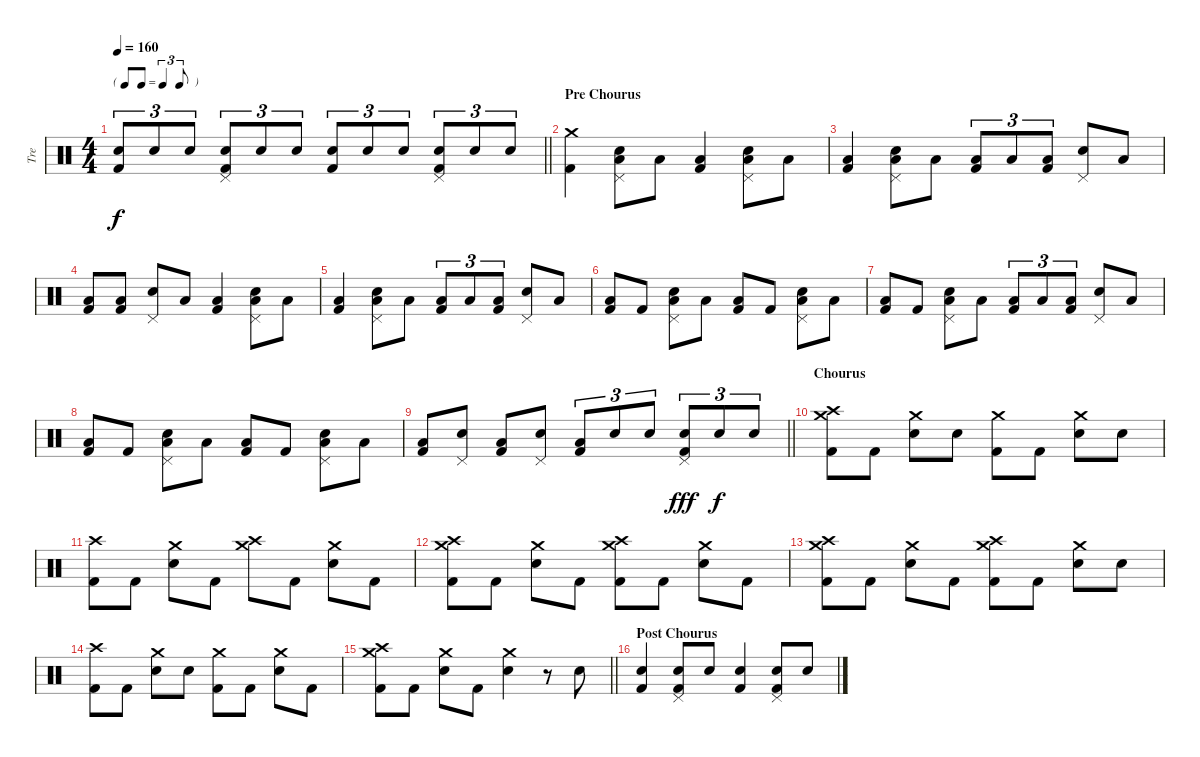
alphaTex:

\track ("Tre" "Tre") {instrument percussion}
\staff {score}
\articulation defaults
\ts (4 4)
\tf triplet8th
\tempo 160
\clef neutral
\barLineRight lightlight
\ks c
("Snare (hit) 2" "Kick (hit) 2").8{tu (3 2) dy f} "Snare (hit) 2".8{tu (3 2)} "Snare (hit) 2".8{tu (3 2)} ("Pedal Hi-Hat (hit)" "Snare (hit) 2" "Kick (hit) 2").8{tu (3 2)} "Snare (hit) 2".8{tu (3 2)} "Snare (hit) 2".8{tu (3 2)} ("Snare (hit) 2" "Kick (hit) 2").8{tu (3 2)} "Snare (hit) 2".8{tu (3 2)} "Snare (hit) 2".8{tu (3 2)} ("Pedal Hi-Hat (hit)" "Snare (hit) 2" "Kick (hit) 2").8{tu (3 2)} "Snare (hit) 2".8{tu (3 2)} "Snare (hit) 2".8{tu (3 2)} |
\section ("" "Pre Chourus")
("Crash medium (hit)" "Kick (hit) 2").4 ("Pedal Hi-Hat (hit)" "Snare (hit) 2" "Low Floor Tom (hit)").8 "Low Floor Tom (hit)".8 ("Low Floor Tom (hit)" "Kick (hit) 2").4 ("Pedal Hi-Hat (hit)" "Snare (hit) 2" "Low Floor Tom (hit)").8 "Low Floor Tom (hit)".8 |
("Low Floor Tom (hit)" "Kick (hit) 2").4 ("Pedal Hi-Hat (hit)" "Snare (hit) 2" "Low Floor Tom (hit)").8 "Low Floor Tom (hit)".8 ("Low Floor Tom (hit)" "Kick (hit) 2").8{tu (3 2)} "Low Floor Tom (hit)".8{tu (3 2)} ("Low Floor Tom (hit)" "Kick (hit) 2").8{tu (3 2)} ("Pedal Hi-Hat (hit)" "Snare (hit) 2").8 "Low Floor Tom (hit)".8 |
("Low Floor Tom (hit)" "Kick (hit) 2").8 ("Low Floor Tom (hit)" "Kick (hit) 2").8 ("Pedal Hi-Hat (hit)" "Snare (hit) 2").8 "Low Floor Tom (hit)".8 ("Low Floor Tom (hit)" "Kick (hit) 2").4 ("Pedal Hi-Hat (hit)" "Snare (hit) 2" "Low Floor Tom (hit)").8 "Low Floor Tom (hit)".8 |
("Low Floor Tom (hit)" "Kick (hit) 2").4 ("Pedal Hi-Hat (hit)" "Snare (hit) 2" "Low Floor Tom (hit)").8 "Low Floor Tom (hit)".8 ("Low Floor Tom (hit)" "Kick (hit) 2").8{tu (3 2)} "Low Floor Tom (hit)".8{tu (3 2)} ("Low Floor Tom (hit)" "Kick (hit) 2").8{tu (3 2)} ("Pedal Hi-Hat (hit)" "Snare (hit) 2").8 "Low Floor Tom (hit)".8 |
("Low Floor Tom (hit)" "Kick (hit) 2").8 "Kick (hit) 2".8 ("Pedal Hi-Hat (hit)" "Snare (hit) 2" "Low Floor Tom (hit)").8 "Low Floor Tom (hit)".8 ("Low Floor Tom (hit)" "Kick (hit) 2").8 "Kick (hit) 2".8 ("Pedal Hi-Hat (hit)" "Snare (hit) 2" "Low Floor Tom (hit)").8 "Low Floor Tom (hit)".8 |
("Low Floor Tom (hit)" "Kick (hit) 2").8 "Kick (hit) 2".8 ("Pedal Hi-Hat (hit)" "Snare (hit) 2" "Low Floor Tom (hit)").8 "Low Floor Tom (hit)".8 ("Low Floor Tom (hit)" "Kick (hit) 2").8{tu (3 2)} "Low Floor Tom (hit)".8{tu (3 2)} ("Low Floor Tom (hit)" "Kick (hit) 2").8{tu (3 2)} ("Pedal Hi-Hat (hit)" "Snare (hit) 2").8 "Low Floor Tom (hit)".8 |
("Low Floor Tom (hit)" "Kick (hit) 2").8 "Kick (hit) 2".8 ("Pedal Hi-Hat (hit)" "Snare (hit) 2" "Low Floor Tom (hit)").8 "Low Floor Tom (hit)".8 ("Low Floor Tom (hit)" "Kick (hit) 2").8 "Kick (hit) 2".8 ("Pedal Hi-Hat (hit)" "Snare (hit) 2" "Low Floor Tom (hit)").8 "Low Floor Tom (hit)".8 |
\barLineRight lightlight
("Low Floor Tom (hit)" "Kick (hit) 2").8 ("Pedal Hi-Hat (hit)" "Snare (hit) 2").8 ("Low Floor Tom (hit)" "Kick (hit) 2").8 ("Pedal Hi-Hat (hit)" "Snare (hit) 2").8 ("Low Floor Tom (hit)" "Kick (hit) 2").8{tu (3 2)} "Snare (hit) 2".8{tu (3 2)} "Snare (hit) 2".8{tu (3 2)} ("Pedal Hi-Hat (hit)" "Snare (hit) 2" "Kick (hit) 2").8{tu (3 2) dy fff} "Snare (hit) 2".8{tu (3 2) dy f} "Snare (hit) 2".8{tu (3 2)} |
\section ("" "Chourus")
("Crash medium (hit)" "Crash high (hit)" "Kick (hit) 2").8 "Kick (hit) 2".8 ("Crash medium (hit)" "Snare (hit) 2").8 "Snare (hit) 2".8 ("Crash medium (hit)" "Kick (hit) 2").8 "Kick (hit) 2".8 ("Crash medium (hit)" "Snare (hit) 2").8 "Snare (hit) 2".8 |
("Crash high (hit)" "Kick (hit) 2").8 "Kick (hit) 2".8 ("Crash medium (hit)" "Snare (hit) 2").8 "Kick (hit) 2".8 ("Crash medium (hit)" "Crash high (hit)").8 "Kick (hit) 2".8 ("Crash medium (hit)" "Snare (hit) 2").8 "Kick (hit) 2".8 |
("Crash medium (hit)" "Crash high (hit)" "Kick (hit) 2").8 "Kick (hit) 2".8 ("Crash medium (hit)" "Snare (hit) 2").8 "Kick (hit) 2".8 ("Crash medium (hit)" "Crash high (hit)" "Kick (hit) 2").8 "Kick (hit) 2".8 ("Crash medium (hit)" "Snare (hit) 2").8 "Kick (hit) 2".8 |
("Crash medium (hit)" "Crash high (hit)" "Kick (hit) 2").8 "Kick (hit) 2".8 ("Crash medium (hit)" "Snare (hit) 2").8 "Kick (hit) 2".8 ("Crash medium (hit)" "Crash high (hit)" "Kick (hit) 2").8 "Kick (hit) 2".8 ("Crash medium (hit)" "Snare (hit) 2").8 "Snare (hit) 2".8 |
("Crash high (hit)" "Kick (hit) 2").8 "Kick (hit) 2".8 ("Crash medium (hit)" "Snare (hit) 2").8 "Snare (hit) 2".8 ("Crash medium (hit)" "Kick (hit) 2").8 "Kick (hit) 2".8 ("Crash medium (hit)" "Snare (hit) 2").8 "Kick (hit) 2".8 |
\barLineRight lightlight
("Crash medium (hit)" "Crash high (hit)" "Kick (hit) 2").8 "Kick (hit) 2".8 ("Crash medium (hit)" "Snare (hit) 2").8 "Kick (hit) 2".8 ("Crash medium (hit)" "Snare (hit) 2").4 r.8 "Snare (hit) 2".8 |
\section ("" "Post Chourus")
("Snare (hit) 2" "Kick (hit) 2").4 ("Pedal Hi-Hat (hit)" "Snare (hit) 2" "Kick (hit) 2").8 "Snare (hit) 2".8 ("Snare (hit) 2" "Kick (hit) 2").4 ("Pedal Hi-Hat (hit)" "Snare (hit) 2" "Kick (hit) 2").8 "Snare (hit) 2".8
